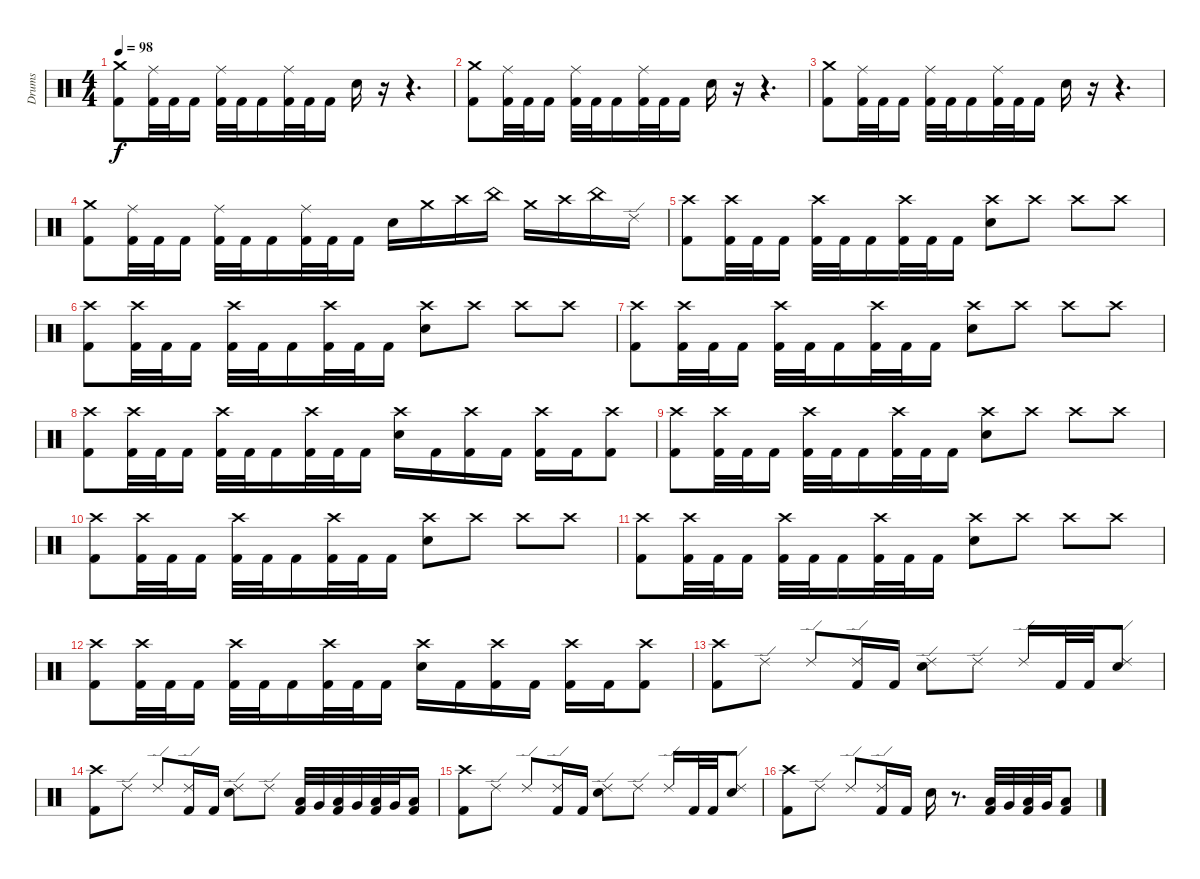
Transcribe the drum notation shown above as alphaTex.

\track ("Drums" "Drums") {instrument percussion}
\staff {score}
\articulation defaults
\ts (4 4)
\tempo 98
\clef neutral
\ks c
("Crash medium (hit)" "Kick (hit) 2").8{dy f} ("Ride (middle)" "Kick (hit) 2").32 "Kick (hit) 2".32 "Kick (hit) 2".16 ("Ride (middle)" "Kick (hit) 2").32 "Kick (hit) 2".32 "Kick (hit) 2".16 ("Ride (middle)" "Kick (hit) 2").32 "Kick (hit) 2".32 "Kick (hit) 2".16 "Snare (hit) 2".16 r.16 r.4{d} |
("Crash medium (hit)" "Kick (hit) 2").8 ("Ride (middle)" "Kick (hit) 2").32 "Kick (hit) 2".32 "Kick (hit) 2".16 ("Ride (middle)" "Kick (hit) 2").32 "Kick (hit) 2".32 "Kick (hit) 2".16 ("Ride (middle)" "Kick (hit) 2").32 "Kick (hit) 2".32 "Kick (hit) 2".16 "Snare (hit) 2".16 r.16 r.4{d} |
("Crash medium (hit)" "Kick (hit) 2").8 ("Ride (middle)" "Kick (hit) 2").32 "Kick (hit) 2".32 "Kick (hit) 2".16 ("Ride (middle)" "Kick (hit) 2").32 "Kick (hit) 2".32 "Kick (hit) 2".16 ("Ride (middle)" "Kick (hit) 2").32 "Kick (hit) 2".32 "Kick (hit) 2".16 "Snare (hit) 2".16 r.16 r.4{d} |
("Crash medium (hit)" "Kick (hit) 2").8 ("Ride (middle)" "Kick (hit) 2").32 "Kick (hit) 2".32 "Kick (hit) 2".16 ("Ride (middle)" "Kick (hit) 2").32 "Kick (hit) 2".32 "Kick (hit) 2".16 ("Ride (middle)" "Kick (hit) 2").32 "Kick (hit) 2".32 "Kick (hit) 2".16 "Snare (hit) 2".16 "Crash medium (hit)".16 "Crash high (hit)".16 "China (hit)".16 "Crash medium (hit)".16 "Crash high (hit)".16 "China (hit)".16 "Ride (edge) 2".16 |
("Crash high (hit)" "Kick (hit) 2").8 ("Crash high (hit)" "Kick (hit) 2").32 "Kick (hit) 2".32 "Kick (hit) 2".16 ("Crash high (hit)" "Kick (hit) 2").32 "Kick (hit) 2".32 "Kick (hit) 2".16 ("Crash high (hit)" "Kick (hit) 2").32 "Kick (hit) 2".32 "Kick (hit) 2".16 ("Crash high (hit)" "Snare (hit) 2").8 "Crash high (hit)".8 "Crash high (hit)".8 "Crash high (hit)".8 |
("Crash high (hit)" "Kick (hit) 2").8 ("Crash high (hit)" "Kick (hit) 2").32 "Kick (hit) 2".32 "Kick (hit) 2".16 ("Crash high (hit)" "Kick (hit) 2").32 "Kick (hit) 2".32 "Kick (hit) 2".16 ("Crash high (hit)" "Kick (hit) 2").32 "Kick (hit) 2".32 "Kick (hit) 2".16 ("Crash high (hit)" "Snare (hit) 2").8 "Crash high (hit)".8 "Crash high (hit)".8 "Crash high (hit)".8 |
("Crash high (hit)" "Kick (hit) 2").8 ("Crash high (hit)" "Kick (hit) 2").32 "Kick (hit) 2".32 "Kick (hit) 2".16 ("Crash high (hit)" "Kick (hit) 2").32 "Kick (hit) 2".32 "Kick (hit) 2".16 ("Crash high (hit)" "Kick (hit) 2").32 "Kick (hit) 2".32 "Kick (hit) 2".16 ("Crash high (hit)" "Snare (hit) 2").8 "Crash high (hit)".8 "Crash high (hit)".8 "Crash high (hit)".8 |
("Crash high (hit)" "Kick (hit) 2").8 ("Crash high (hit)" "Kick (hit) 2").32 "Kick (hit) 2".32 "Kick (hit) 2".16 ("Crash high (hit)" "Kick (hit) 2").32 "Kick (hit) 2".32 "Kick (hit) 2".16 ("Crash high (hit)" "Kick (hit) 2").32 "Kick (hit) 2".32 "Kick (hit) 2".16 ("Crash high (hit)" "Snare (hit) 2").16 "Kick (hit) 2".16 ("Crash high (hit)" "Kick (hit) 2").16 "Kick (hit) 2".16 ("Crash high (hit)" "Kick (hit) 2").16 "Kick (hit) 2".16 ("Crash high (hit)" "Kick (hit) 2").8 |
("Crash high (hit)" "Kick (hit) 2").8 ("Crash high (hit)" "Kick (hit) 2").32 "Kick (hit) 2".32 "Kick (hit) 2".16 ("Crash high (hit)" "Kick (hit) 2").32 "Kick (hit) 2".32 "Kick (hit) 2".16 ("Crash high (hit)" "Kick (hit) 2").32 "Kick (hit) 2".32 "Kick (hit) 2".16 ("Crash high (hit)" "Snare (hit) 2").8 "Crash high (hit)".8 "Crash high (hit)".8 "Crash high (hit)".8 |
("Crash high (hit)" "Kick (hit) 2").8 ("Crash high (hit)" "Kick (hit) 2").32 "Kick (hit) 2".32 "Kick (hit) 2".16 ("Crash high (hit)" "Kick (hit) 2").32 "Kick (hit) 2".32 "Kick (hit) 2".16 ("Crash high (hit)" "Kick (hit) 2").32 "Kick (hit) 2".32 "Kick (hit) 2".16 ("Crash high (hit)" "Snare (hit) 2").8 "Crash high (hit)".8 "Crash high (hit)".8 "Crash high (hit)".8 |
("Crash high (hit)" "Kick (hit) 2").8 ("Crash high (hit)" "Kick (hit) 2").32 "Kick (hit) 2".32 "Kick (hit) 2".16 ("Crash high (hit)" "Kick (hit) 2").32 "Kick (hit) 2".32 "Kick (hit) 2".16 ("Crash high (hit)" "Kick (hit) 2").32 "Kick (hit) 2".32 "Kick (hit) 2".16 ("Crash high (hit)" "Snare (hit) 2").8 "Crash high (hit)".8 "Crash high (hit)".8 "Crash high (hit)".8 |
("Crash high (hit)" "Kick (hit) 2").8 ("Crash high (hit)" "Kick (hit) 2").32 "Kick (hit) 2".32 "Kick (hit) 2".16 ("Crash high (hit)" "Kick (hit) 2").32 "Kick (hit) 2".32 "Kick (hit) 2".16 ("Crash high (hit)" "Kick (hit) 2").32 "Kick (hit) 2".32 "Kick (hit) 2".16 ("Crash high (hit)" "Snare (hit) 2").16 "Kick (hit) 2".16 ("Crash high (hit)" "Kick (hit) 2").16 "Kick (hit) 2".16 ("Crash high (hit)" "Kick (hit) 2").16 "Kick (hit) 2".16 ("Crash high (hit)" "Kick (hit) 2").8 |
("Crash high (hit)" "Kick (hit) 2").8 "Ride (edge) 2".8 "Ride (edge) 2".8 ("Ride (edge) 2" "Kick (hit) 2").16 "Kick (hit) 2".16 ("Ride (edge) 2" "Snare (hit) 2").8 "Ride (edge) 2".8 "Ride (edge) 2".16 "Kick (hit) 2".32 "Kick (hit) 2".32 ("Ride (edge) 2" "Snare (hit) 2").8 |
("Crash high (hit)" "Kick (hit) 2").8 "Ride (edge) 2".8 "Ride (edge) 2".8 ("Ride (edge) 2" "Kick (hit) 2").16 "Kick (hit) 2".16 ("Ride (edge) 2" "Snare (hit) 2").8 "Ride (edge) 2".8 ("Low Tom (hit)" "Kick (hit) 2").32 "Very Low Tom (hit)".32 ("Low Tom (hit)" "Kick (hit) 2").32 "Very Low Tom (hit)".32 ("Low Tom (hit)" "Kick (hit) 2").32 "Very Low Tom (hit)".32 ("Low Tom (hit)" "Kick (hit) 2").16 |
("Crash high (hit)" "Kick (hit) 2").8 "Ride (edge) 2".8 "Ride (edge) 2".8 ("Ride (edge) 2" "Kick (hit) 2").16 "Kick (hit) 2".16 ("Ride (edge) 2" "Snare (hit) 2").8 "Ride (edge) 2".8 "Ride (edge) 2".16 "Kick (hit) 2".32 "Kick (hit) 2".32 ("Ride (edge) 2" "Snare (hit) 2").8 |
("Crash high (hit)" "Kick (hit) 2").8 "Ride (edge) 2".8 "Ride (edge) 2".8 ("Ride (edge) 2" "Kick (hit) 2").16 "Kick (hit) 2".16 "Snare (hit) 2".16 r.8{d} ("Low Tom (hit)" "Kick (hit) 2").32 "Very Low Tom (hit)".32 ("Low Tom (hit)" "Kick (hit) 2").32 "Very Low Tom (hit)".32 ("Low Tom (hit)" "Kick (hit) 2").8
